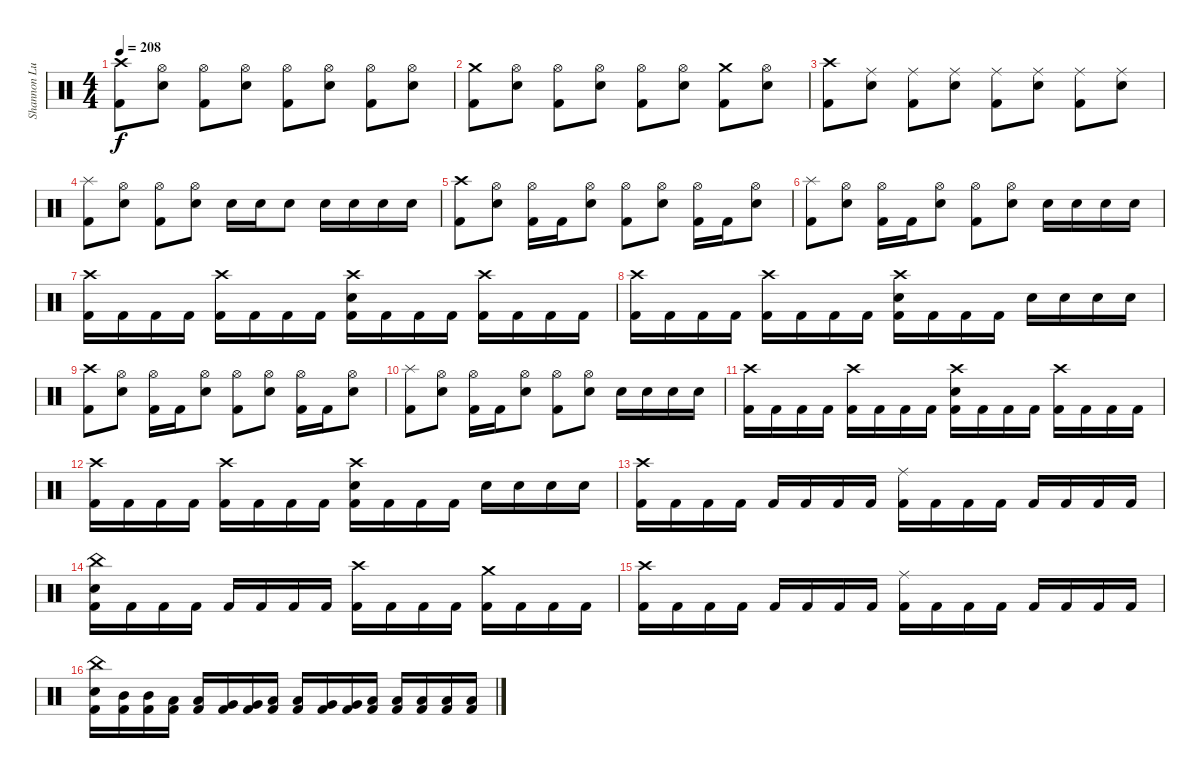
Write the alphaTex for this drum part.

\track ("Shannon Lucas [Drums (Since 2007)]" "Shannon Lu") {instrument percussion}
\staff {score}
\articulation defaults
\ts (4 4)
\tempo 208
\clef neutral
\ks c
("Crash high (hit)" "Kick (hit) 2").8{dy f} ("Hi-Hat (open)" "Snare (hit) 2").8 ("Hi-Hat (open)" "Kick (hit) 2").8 ("Hi-Hat (open)" "Snare (hit) 2").8 ("Hi-Hat (open)" "Kick (hit) 2").8 ("Hi-Hat (open)" "Snare (hit) 2").8 ("Hi-Hat (open)" "Kick (hit) 2").8 ("Hi-Hat (open)" "Snare (hit) 2").8 |
("Crash medium (hit)" "Kick (hit) 2").8 ("Hi-Hat (open)" "Snare (hit) 2").8 ("Hi-Hat (open)" "Kick (hit) 2").8 ("Hi-Hat (open)" "Snare (hit) 2").8 ("Hi-Hat (open)" "Kick (hit) 2").8 ("Hi-Hat (open)" "Snare (hit) 2").8 ("Crash medium (hit)" "Kick (hit) 2").8 ("Hi-Hat (open)" "Snare (hit) 2").8 |
("Crash high (hit)" "Kick (hit) 2").8 ("Ride (middle)" "Snare (hit) 2").8 ("Ride (middle)" "Kick (hit) 2").8 ("Ride (middle)" "Snare (hit) 2").8 ("Ride (middle)" "Kick (hit) 2").8 ("Ride (middle)" "Snare (hit) 2").8 ("Ride (middle)" "Kick (hit) 2").8 ("Ride (middle)" "Snare (hit) 2").8 |
("Splash (hit)" "Kick (hit) 2").8 ("Hi-Hat (open)" "Snare (hit) 2").8 ("Hi-Hat (open)" "Kick (hit) 2").8 ("Hi-Hat (open)" "Snare (hit) 2").8 "Snare (hit) 2".16 "Snare (hit) 2".16 "Snare (hit) 2".8 "Snare (hit) 2".16 "Snare (hit) 2".16 "Snare (hit) 2".16 "Snare (hit) 2".16 |
("Crash high (hit)" "Kick (hit) 2").8 ("Hi-Hat (open)" "Snare (hit) 2").8 ("Hi-Hat (open)" "Kick (hit) 2").16 "Kick (hit) 2".16 ("Hi-Hat (open)" "Snare (hit) 2").8 ("Hi-Hat (open)" "Kick (hit) 2").8 ("Hi-Hat (open)" "Snare (hit) 2").8 ("Hi-Hat (open)" "Kick (hit) 2").16 "Kick (hit) 2".16 ("Hi-Hat (open)" "Snare (hit) 2").8 |
("Splash (hit)" "Kick (hit) 2").8 ("Hi-Hat (open)" "Snare (hit) 2").8 ("Hi-Hat (open)" "Kick (hit) 2").16 "Kick (hit) 2".16 ("Hi-Hat (open)" "Snare (hit) 2").8 ("Hi-Hat (open)" "Kick (hit) 2").8 ("Hi-Hat (open)" "Snare (hit) 2").8 "Snare (hit) 2".16 "Snare (hit) 2".16 "Snare (hit) 2".16 "Snare (hit) 2".16 |
("Crash high (hit)" "Kick (hit) 2").16 "Kick (hit) 2".16 "Kick (hit) 2".16 "Kick (hit) 2".16 ("Crash high (hit)" "Kick (hit) 2").16 "Kick (hit) 2".16 "Kick (hit) 2".16 "Kick (hit) 2".16 ("Crash high (hit)" "Snare (hit) 2" "Kick (hit) 2").16 "Kick (hit) 2".16 "Kick (hit) 2".16 "Kick (hit) 2".16 ("Crash high (hit)" "Kick (hit) 2").16 "Kick (hit) 2".16 "Kick (hit) 2".16 "Kick (hit) 2".16 |
("Crash high (hit)" "Kick (hit) 2").16 "Kick (hit) 2".16 "Kick (hit) 2".16 "Kick (hit) 2".16 ("Crash high (hit)" "Kick (hit) 2").16 "Kick (hit) 2".16 "Kick (hit) 2".16 "Kick (hit) 2".16 ("Crash high (hit)" "Snare (hit) 2" "Kick (hit) 2").16 "Kick (hit) 2".16 "Kick (hit) 2".16 "Kick (hit) 2".16 "Snare (hit) 2".16 "Snare (hit) 2".16 "Snare (hit) 2".16 "Snare (hit) 2".16 |
("Crash high (hit)" "Kick (hit) 2").8 ("Hi-Hat (open)" "Snare (hit) 2").8 ("Hi-Hat (open)" "Kick (hit) 2").16 "Kick (hit) 2".16 ("Hi-Hat (open)" "Snare (hit) 2").8 ("Hi-Hat (open)" "Kick (hit) 2").8 ("Hi-Hat (open)" "Snare (hit) 2").8 ("Hi-Hat (open)" "Kick (hit) 2").16 "Kick (hit) 2".16 ("Hi-Hat (open)" "Snare (hit) 2").8 |
("Splash (hit)" "Kick (hit) 2").8 ("Hi-Hat (open)" "Snare (hit) 2").8 ("Hi-Hat (open)" "Kick (hit) 2").16 "Kick (hit) 2".16 ("Hi-Hat (open)" "Snare (hit) 2").8 ("Hi-Hat (open)" "Kick (hit) 2").8 ("Hi-Hat (open)" "Snare (hit) 2").8 "Snare (hit) 2".16 "Snare (hit) 2".16 "Snare (hit) 2".16 "Snare (hit) 2".16 |
("Crash high (hit)" "Kick (hit) 2").16 "Kick (hit) 2".16 "Kick (hit) 2".16 "Kick (hit) 2".16 ("Crash high (hit)" "Kick (hit) 2").16 "Kick (hit) 2".16 "Kick (hit) 2".16 "Kick (hit) 2".16 ("Crash high (hit)" "Snare (hit) 2" "Kick (hit) 2").16 "Kick (hit) 2".16 "Kick (hit) 2".16 "Kick (hit) 2".16 ("Crash high (hit)" "Kick (hit) 2").16 "Kick (hit) 2".16 "Kick (hit) 2".16 "Kick (hit) 2".16 |
("Crash high (hit)" "Kick (hit) 2").16 "Kick (hit) 2".16 "Kick (hit) 2".16 "Kick (hit) 2".16 ("Crash high (hit)" "Kick (hit) 2").16 "Kick (hit) 2".16 "Kick (hit) 2".16 "Kick (hit) 2".16 ("Crash high (hit)" "Snare (hit) 2" "Kick (hit) 2").16 "Kick (hit) 2".16 "Kick (hit) 2".16 "Kick (hit) 2".16 "Snare (hit) 2".16 "Snare (hit) 2".16 "Snare (hit) 2".16 "Snare (hit) 2".16 |
("Crash high (hit)" "Kick (hit) 2").16 "Kick (hit) 2".16 "Kick (hit) 2".16 "Kick (hit) 2".16 "Kick (hit) 2".16 "Kick (hit) 2".16 "Kick (hit) 2".16 "Kick (hit) 2".16 ("Ride (middle)" "Kick (hit) 2").16 "Kick (hit) 2".16 "Kick (hit) 2".16 "Kick (hit) 2".16 "Kick (hit) 2".16 "Kick (hit) 2".16 "Kick (hit) 2".16 "Kick (hit) 2".16 |
("China (hit)" "Snare (hit) 2" "Kick (hit) 2").16 "Kick (hit) 2".16 "Kick (hit) 2".16 "Kick (hit) 2".16 "Kick (hit) 2".16 "Kick (hit) 2".16 "Kick (hit) 2".16 "Kick (hit) 2".16 ("Crash high (hit)" "Kick (hit) 2").16 "Kick (hit) 2".16 "Kick (hit) 2".16 "Kick (hit) 2".16 ("Crash medium (hit)" "Kick (hit) 2").16 "Kick (hit) 2".16 "Kick (hit) 2".16 "Kick (hit) 2".16 |
("Crash high (hit)" "Kick (hit) 2").16 "Kick (hit) 2".16 "Kick (hit) 2".16 "Kick (hit) 2".16 "Kick (hit) 2".16 "Kick (hit) 2".16 "Kick (hit) 2".16 "Kick (hit) 2".16 ("Ride (middle)" "Kick (hit) 2").16 "Kick (hit) 2".16 "Kick (hit) 2".16 "Kick (hit) 2".16 "Kick (hit) 2".16 "Kick (hit) 2".16 "Kick (hit) 2".16 "Kick (hit) 2".16 |
("China (hit)" "Snare (hit) 2" "Kick (hit) 2").16 ("Mid Tom (hit)" "Kick (hit) 2").16 ("Mid Tom (hit)" "Kick (hit) 2").16 ("Low Tom (hit)" "Kick (hit) 2").16 ("Low Tom (hit)" "Kick (hit) 2").16 ("Very Low Tom (hit)" "Kick (hit) 2").16 ("Very Low Tom (hit)" "Kick (hit) 2").16 ("Low Tom (hit)" "Kick (hit) 2").16 ("Low Tom (hit)" "Kick (hit) 2").16 ("Very Low Tom (hit)" "Kick (hit) 2").16 ("Very Low Tom (hit)" "Kick (hit) 2").16 ("Low Tom (hit)" "Kick (hit) 2").16 ("Low Tom (hit)" "Kick (hit) 2").16 ("Low Floor Tom (hit)" "Kick (hit) 2").16 ("Low Floor Tom (hit)" "Kick (hit) 2").16 ("Low Floor Tom (hit)" "Kick (hit) 2").16
